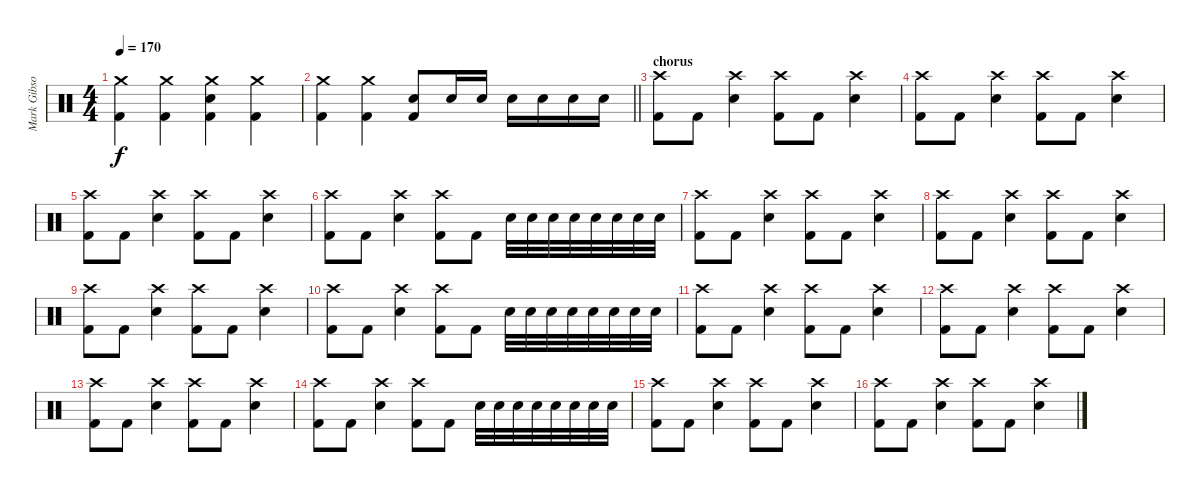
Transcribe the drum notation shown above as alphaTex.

\track ("Mark Gibson" "Mark Gibso") {instrument percussion}
\staff {score}
\articulation defaults
\ts (4 4)
\tempo 170
\clef neutral
\ks c
("Crash medium (hit)" "Kick (hit) 2").4{dy f} ("Crash medium (hit)" "Kick (hit) 2").4 ("Crash medium (hit)" "Electric Snare (hit)" "Kick (hit) 2").4 ("Crash medium (hit)" "Kick (hit) 2").4 |
\barLineRight lightlight
("Crash medium (hit)" "Kick (hit) 2").4 ("Crash medium (hit)" "Kick (hit) 2").4 ("Electric Snare (hit)" "Kick (hit) 2").8 "Electric Snare (hit)".16 "Electric Snare (hit)".16 "Electric Snare (hit)".16 "Electric Snare (hit)".16 "Electric Snare (hit)".16 "Electric Snare (hit)".16 |
\section ("" "chorus")
("Crash high (hit)" "Kick (hit) 2").8 "Kick (hit) 2".8 ("Crash high (hit)" "Electric Snare (hit)").4 ("Crash high (hit)" "Kick (hit) 2").8 "Kick (hit) 2".8 ("Crash high (hit)" "Electric Snare (hit)").4 |
("Crash high (hit)" "Kick (hit) 2").8 "Kick (hit) 2".8 ("Crash high (hit)" "Electric Snare (hit)").4 ("Crash high (hit)" "Kick (hit) 2").8 "Kick (hit) 2".8 ("Crash high (hit)" "Electric Snare (hit)").4 |
("Crash high (hit)" "Kick (hit) 2").8 "Kick (hit) 2".8 ("Crash high (hit)" "Electric Snare (hit)").4 ("Crash high (hit)" "Kick (hit) 2").8 "Kick (hit) 2".8 ("Crash high (hit)" "Electric Snare (hit)").4 |
("Crash high (hit)" "Kick (hit) 2").8 "Kick (hit) 2".8 ("Crash high (hit)" "Electric Snare (hit)").4 ("Crash high (hit)" "Kick (hit) 2").8 "Kick (hit) 2".8 "Electric Snare (hit)".32 "Electric Snare (hit)".32 "Electric Snare (hit)".32 "Electric Snare (hit)".32 "Electric Snare (hit)".32 "Electric Snare (hit)".32 "Electric Snare (hit)".32 "Electric Snare (hit)".32 |
("Crash high (hit)" "Kick (hit) 2").8 "Kick (hit) 2".8 ("Crash high (hit)" "Electric Snare (hit)").4 ("Crash high (hit)" "Kick (hit) 2").8 "Kick (hit) 2".8 ("Crash high (hit)" "Electric Snare (hit)").4 |
("Crash high (hit)" "Kick (hit) 2").8 "Kick (hit) 2".8 ("Crash high (hit)" "Electric Snare (hit)").4 ("Crash high (hit)" "Kick (hit) 2").8 "Kick (hit) 2".8 ("Crash high (hit)" "Electric Snare (hit)").4 |
("Crash high (hit)" "Kick (hit) 2").8 "Kick (hit) 2".8 ("Crash high (hit)" "Electric Snare (hit)").4 ("Crash high (hit)" "Kick (hit) 2").8 "Kick (hit) 2".8 ("Crash high (hit)" "Electric Snare (hit)").4 |
("Crash high (hit)" "Kick (hit) 2").8 "Kick (hit) 2".8 ("Crash high (hit)" "Electric Snare (hit)").4 ("Crash high (hit)" "Kick (hit) 2").8 "Kick (hit) 2".8 "Electric Snare (hit)".32 "Electric Snare (hit)".32 "Electric Snare (hit)".32 "Electric Snare (hit)".32 "Electric Snare (hit)".32 "Electric Snare (hit)".32 "Electric Snare (hit)".32 "Electric Snare (hit)".32 |
("Crash high (hit)" "Kick (hit) 2").8 "Kick (hit) 2".8 ("Crash high (hit)" "Electric Snare (hit)").4 ("Crash high (hit)" "Kick (hit) 2").8 "Kick (hit) 2".8 ("Crash high (hit)" "Electric Snare (hit)").4 |
("Crash high (hit)" "Kick (hit) 2").8 "Kick (hit) 2".8 ("Crash high (hit)" "Electric Snare (hit)").4 ("Crash high (hit)" "Kick (hit) 2").8 "Kick (hit) 2".8 ("Crash high (hit)" "Electric Snare (hit)").4 |
("Crash high (hit)" "Kick (hit) 2").8 "Kick (hit) 2".8 ("Crash high (hit)" "Electric Snare (hit)").4 ("Crash high (hit)" "Kick (hit) 2").8 "Kick (hit) 2".8 ("Crash high (hit)" "Electric Snare (hit)").4 |
("Crash high (hit)" "Kick (hit) 2").8 "Kick (hit) 2".8 ("Crash high (hit)" "Electric Snare (hit)").4 ("Crash high (hit)" "Kick (hit) 2").8 "Kick (hit) 2".8 "Electric Snare (hit)".32 "Electric Snare (hit)".32 "Electric Snare (hit)".32 "Electric Snare (hit)".32 "Electric Snare (hit)".32 "Electric Snare (hit)".32 "Electric Snare (hit)".32 "Electric Snare (hit)".32 |
("Crash high (hit)" "Kick (hit) 2").8 "Kick (hit) 2".8 ("Crash high (hit)" "Electric Snare (hit)").4 ("Crash high (hit)" "Kick (hit) 2").8 "Kick (hit) 2".8 ("Crash high (hit)" "Electric Snare (hit)").4 |
("Crash high (hit)" "Kick (hit) 2").8 "Kick (hit) 2".8 ("Crash high (hit)" "Electric Snare (hit)").4 ("Crash high (hit)" "Kick (hit) 2").8 "Kick (hit) 2".8 ("Crash high (hit)" "Electric Snare (hit)").4
